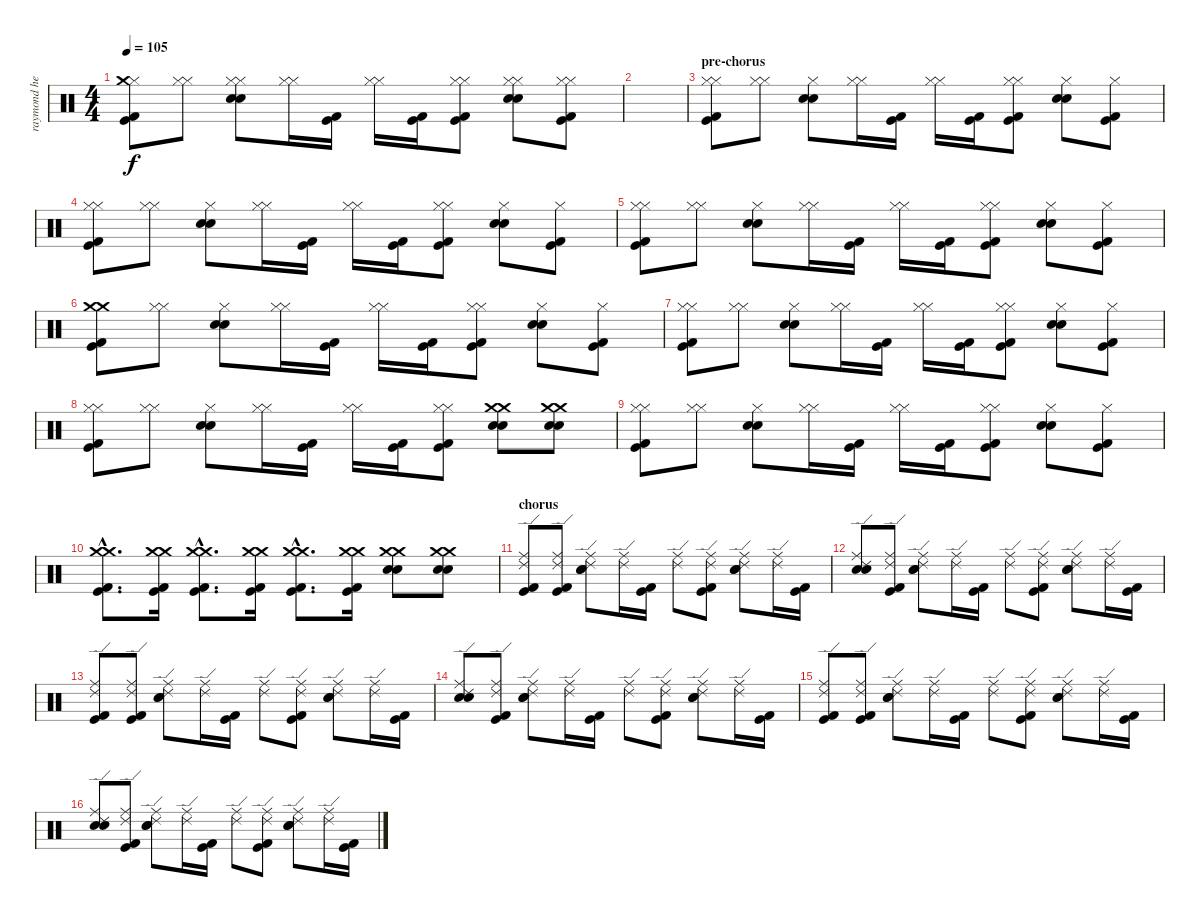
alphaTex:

\track ("raymond herrea" "raymond he") {instrument percussion}
\staff {score}
\articulation defaults
\ts (4 4)
\tempo 105
\clef neutral
\ks c
("Hi-Hat (closed)" "Crash medium (hit)" "Kick (hit)" "Kick (hit) 2").8{dy f} ("Hi-Hat (closed)" "Hi-Hat (closed)").8 ("Hi-Hat (closed)" "Hi-Hat (closed)" "Snare (hit) 2" "Electric Snare (hit)").8 ("Hi-Hat (closed)" "Hi-Hat (closed)").16 ("Kick (hit)" "Kick (hit) 2").16 ("Hi-Hat (closed)" "Hi-Hat (closed)").16 ("Kick (hit)" "Kick (hit) 2").16 ("Hi-Hat (closed)" "Hi-Hat (closed)" "Kick (hit)" "Kick (hit) 2").8 ("Hi-Hat (closed)" "Hi-Hat (closed)" "Snare (hit) 2" "Electric Snare (hit)").8 ("Hi-Hat (closed)" "Hi-Hat (closed)" "Kick (hit)" "Kick (hit) 2").8 |
|
\section ("" "pre-chorus")
("Hi-Hat (closed)" "Hi-Hat (closed)" "Kick (hit)" "Kick (hit) 2").8 ("Hi-Hat (closed)" "Hi-Hat (closed)").8 ("Hi-Hat (closed)" "Snare (hit) 2" "Electric Snare (hit)").8 ("Hi-Hat (closed)" "Hi-Hat (closed)").16 ("Kick (hit)" "Kick (hit) 2").16 ("Hi-Hat (closed)" "Hi-Hat (closed)").16 ("Kick (hit)" "Kick (hit) 2").16 ("Hi-Hat (closed)" "Hi-Hat (closed)" "Kick (hit)" "Kick (hit) 2").8 ("Hi-Hat (closed)" "Electric Snare (hit)" "Snare (hit) 2").8 ("Hi-Hat (closed)" "Kick (hit)" "Kick (hit) 2").8 |
("Hi-Hat (closed)" "Hi-Hat (closed)" "Kick (hit)" "Kick (hit) 2").8 ("Hi-Hat (closed)" "Hi-Hat (closed)").8 ("Hi-Hat (closed)" "Snare (hit) 2" "Electric Snare (hit)").8 ("Hi-Hat (closed)" "Hi-Hat (closed)").16 ("Kick (hit)" "Kick (hit) 2").16 ("Hi-Hat (closed)" "Hi-Hat (closed)").16 ("Kick (hit)" "Kick (hit) 2").16 ("Hi-Hat (closed)" "Hi-Hat (closed)" "Kick (hit)" "Kick (hit) 2").8 ("Hi-Hat (closed)" "Electric Snare (hit)" "Snare (hit) 2").8 ("Hi-Hat (closed)" "Kick (hit)" "Kick (hit) 2").8 |
("Hi-Hat (closed)" "Hi-Hat (closed)" "Kick (hit)" "Kick (hit) 2").8 ("Hi-Hat (closed)" "Hi-Hat (closed)").8 ("Hi-Hat (closed)" "Snare (hit) 2" "Electric Snare (hit)").8 ("Hi-Hat (closed)" "Hi-Hat (closed)").16 ("Kick (hit)" "Kick (hit) 2").16 ("Hi-Hat (closed)" "Hi-Hat (closed)").16 ("Kick (hit)" "Kick (hit) 2").16 ("Hi-Hat (closed)" "Hi-Hat (closed)" "Kick (hit)" "Kick (hit) 2").8 ("Hi-Hat (closed)" "Electric Snare (hit)" "Snare (hit) 2").8 ("Hi-Hat (closed)" "Kick (hit)" "Kick (hit) 2").8 |
("Crash medium (hit)" "Crash medium (hit)" "Kick (hit)" "Kick (hit) 2").8 ("Hi-Hat (closed)" "Hi-Hat (closed)").8 ("Hi-Hat (closed)" "Snare (hit) 2" "Electric Snare (hit)").8 ("Hi-Hat (closed)" "Hi-Hat (closed)").16 ("Kick (hit)" "Kick (hit) 2").16 ("Hi-Hat (closed)" "Hi-Hat (closed)").16 ("Kick (hit)" "Kick (hit) 2").16 ("Hi-Hat (closed)" "Hi-Hat (closed)" "Kick (hit)" "Kick (hit) 2").8 ("Hi-Hat (closed)" "Electric Snare (hit)" "Snare (hit) 2").8 ("Hi-Hat (closed)" "Kick (hit)" "Kick (hit) 2").8 |
("Hi-Hat (closed)" "Hi-Hat (closed)" "Kick (hit)" "Kick (hit) 2").8 ("Hi-Hat (closed)" "Hi-Hat (closed)").8 ("Hi-Hat (closed)" "Snare (hit) 2" "Electric Snare (hit)").8 ("Hi-Hat (closed)" "Hi-Hat (closed)").16 ("Kick (hit)" "Kick (hit) 2").16 ("Hi-Hat (closed)" "Hi-Hat (closed)").16 ("Kick (hit)" "Kick (hit) 2").16 ("Hi-Hat (closed)" "Hi-Hat (closed)" "Kick (hit)" "Kick (hit) 2").8 ("Hi-Hat (closed)" "Electric Snare (hit)" "Snare (hit) 2").8 ("Hi-Hat (closed)" "Kick (hit)" "Kick (hit) 2").8 |
("Hi-Hat (closed)" "Hi-Hat (closed)" "Kick (hit)" "Kick (hit) 2").8 ("Hi-Hat (closed)" "Hi-Hat (closed)").8 ("Hi-Hat (closed)" "Snare (hit) 2" "Electric Snare (hit)").8 ("Hi-Hat (closed)" "Hi-Hat (closed)").16 ("Kick (hit)" "Kick (hit) 2").16 ("Hi-Hat (closed)" "Hi-Hat (closed)").16 ("Kick (hit)" "Kick (hit) 2").16 ("Hi-Hat (closed)" "Hi-Hat (closed)" "Kick (hit)" "Kick (hit) 2").8 ("Crash medium (hit)" "Electric Snare (hit)" "Snare (hit) 2" "Crash medium (hit)").8 ("Crash medium (hit)" "Electric Snare (hit)" "Snare (hit) 2" "Crash medium (hit)").8 |
("Hi-Hat (closed)" "Hi-Hat (closed)" "Kick (hit)" "Kick (hit) 2").8 ("Hi-Hat (closed)" "Hi-Hat (closed)").8 ("Hi-Hat (closed)" "Snare (hit) 2" "Electric Snare (hit)").8 ("Hi-Hat (closed)" "Hi-Hat (closed)").16 ("Kick (hit)" "Kick (hit) 2").16 ("Hi-Hat (closed)" "Hi-Hat (closed)").16 ("Kick (hit)" "Kick (hit) 2").16 ("Hi-Hat (closed)" "Hi-Hat (closed)" "Kick (hit)" "Kick (hit) 2").8 ("Hi-Hat (closed)" "Electric Snare (hit)" "Snare (hit) 2").8 ("Hi-Hat (closed)" "Kick (hit)" "Kick (hit) 2").8 |
("Crash medium (hit)"{hac} "Crash medium (hit)"{hac} "Kick (hit)"{hac} "Kick (hit) 2"{hac}).8{d} ("Crash medium (hit)" "Crash medium (hit)" "Kick (hit)" "Kick (hit) 2").16 ("Crash medium (hit)"{hac} "Crash medium (hit)"{hac} "Kick (hit)"{hac} "Kick (hit) 2"{hac}).8{d} ("Crash medium (hit)" "Crash medium (hit)" "Kick (hit)" "Kick (hit) 2").16 ("Crash medium (hit)"{hac} "Crash medium (hit)"{hac} "Kick (hit)"{hac} "Kick (hit) 2"{hac}).8{d} ("Crash medium (hit)" "Crash medium (hit)" "Kick (hit)" "Kick (hit) 2").16 ("Crash medium (hit)" "Crash medium (hit)" "Electric Snare (hit)" "Snare (hit) 2").8 ("Crash medium (hit)" "Crash medium (hit)" "Electric Snare (hit)" "Snare (hit) 2").8 |
\section ("" "chorus")
("Ride (middle)" "Ride (edge) 2" "Kick (hit)" "Kick (hit) 2").8 ("Ride (middle)" "Ride (edge) 2" "Kick (hit)" "Kick (hit) 2").8 ("Ride (middle)" "Ride (edge) 2" "Snare (hit) 2" "Electric Snare (hit)").8 ("Ride (middle)" "Ride (edge) 2").16 ("Kick (hit)" "Kick (hit) 2").16 ("Ride (middle)" "Ride (edge) 2").8 ("Ride (middle)" "Ride (edge) 2" "Kick (hit)" "Kick (hit) 2").8 ("Ride (middle)" "Ride (edge) 2" "Snare (hit) 2" "Electric Snare (hit)").8 ("Ride (middle)" "Ride (edge) 2").16 ("Kick (hit)" "Kick (hit) 2").16 |
("Ride (middle)" "Ride (edge) 2" "Snare (hit)" "Snare (hit)").8 ("Ride (middle)" "Ride (edge) 2" "Kick (hit)" "Kick (hit) 2").8 ("Ride (middle)" "Ride (edge) 2" "Snare (hit) 2" "Electric Snare (hit)").8 ("Ride (middle)" "Ride (edge) 2").16 ("Kick (hit)" "Kick (hit) 2").16 ("Ride (middle)" "Ride (edge) 2").8 ("Ride (middle)" "Ride (edge) 2" "Kick (hit)" "Kick (hit) 2").8 ("Ride (middle)" "Ride (edge) 2" "Snare (hit) 2" "Electric Snare (hit)").8 ("Ride (middle)" "Ride (edge) 2").16 ("Kick (hit)" "Kick (hit) 2").16 |
("Ride (middle)" "Ride (edge) 2" "Kick (hit)" "Kick (hit) 2").8 ("Ride (middle)" "Ride (edge) 2" "Kick (hit)" "Kick (hit) 2").8 ("Ride (middle)" "Ride (edge) 2" "Snare (hit) 2" "Electric Snare (hit)").8 ("Ride (middle)" "Ride (edge) 2").16 ("Kick (hit)" "Kick (hit) 2").16 ("Ride (middle)" "Ride (edge) 2").8 ("Ride (middle)" "Ride (edge) 2" "Kick (hit)" "Kick (hit) 2").8 ("Ride (middle)" "Ride (edge) 2" "Snare (hit) 2" "Electric Snare (hit)").8 ("Ride (middle)" "Ride (edge) 2").16 ("Kick (hit)" "Kick (hit) 2").16 |
("Ride (middle)" "Ride (edge) 2" "Snare (hit)" "Snare (hit)").8 ("Ride (middle)" "Ride (edge) 2" "Kick (hit)" "Kick (hit) 2").8 ("Ride (middle)" "Ride (edge) 2" "Snare (hit) 2" "Electric Snare (hit)").8 ("Ride (middle)" "Ride (edge) 2").16 ("Kick (hit)" "Kick (hit) 2").16 ("Ride (middle)" "Ride (edge) 2").8 ("Ride (middle)" "Ride (edge) 2" "Kick (hit)" "Kick (hit) 2").8 ("Ride (middle)" "Ride (edge) 2" "Snare (hit) 2" "Electric Snare (hit)").8 ("Ride (middle)" "Ride (edge) 2").16 ("Kick (hit)" "Kick (hit) 2").16 |
("Ride (middle)" "Ride (edge) 2" "Kick (hit)" "Kick (hit) 2").8 ("Ride (middle)" "Ride (edge) 2" "Kick (hit)" "Kick (hit) 2").8 ("Ride (middle)" "Ride (edge) 2" "Snare (hit) 2" "Electric Snare (hit)").8 ("Ride (middle)" "Ride (edge) 2").16 ("Kick (hit)" "Kick (hit) 2").16 ("Ride (middle)" "Ride (edge) 2").8 ("Ride (middle)" "Ride (edge) 2" "Kick (hit)" "Kick (hit) 2").8 ("Ride (middle)" "Ride (edge) 2" "Snare (hit) 2" "Electric Snare (hit)").8 ("Ride (middle)" "Ride (edge) 2").16 ("Kick (hit)" "Kick (hit) 2").16 |
("Ride (middle)" "Ride (edge) 2" "Snare (hit)" "Snare (hit)").8 ("Ride (middle)" "Ride (edge) 2" "Kick (hit)" "Kick (hit) 2").8 ("Ride (middle)" "Ride (edge) 2" "Snare (hit) 2" "Electric Snare (hit)").8 ("Ride (middle)" "Ride (edge) 2").16 ("Kick (hit)" "Kick (hit) 2").16 ("Ride (middle)" "Ride (edge) 2").8 ("Ride (middle)" "Ride (edge) 2" "Kick (hit)" "Kick (hit) 2").8 ("Ride (middle)" "Ride (edge) 2" "Snare (hit) 2" "Electric Snare (hit)").8 ("Ride (middle)" "Ride (edge) 2").16 ("Kick (hit)" "Kick (hit) 2").16
